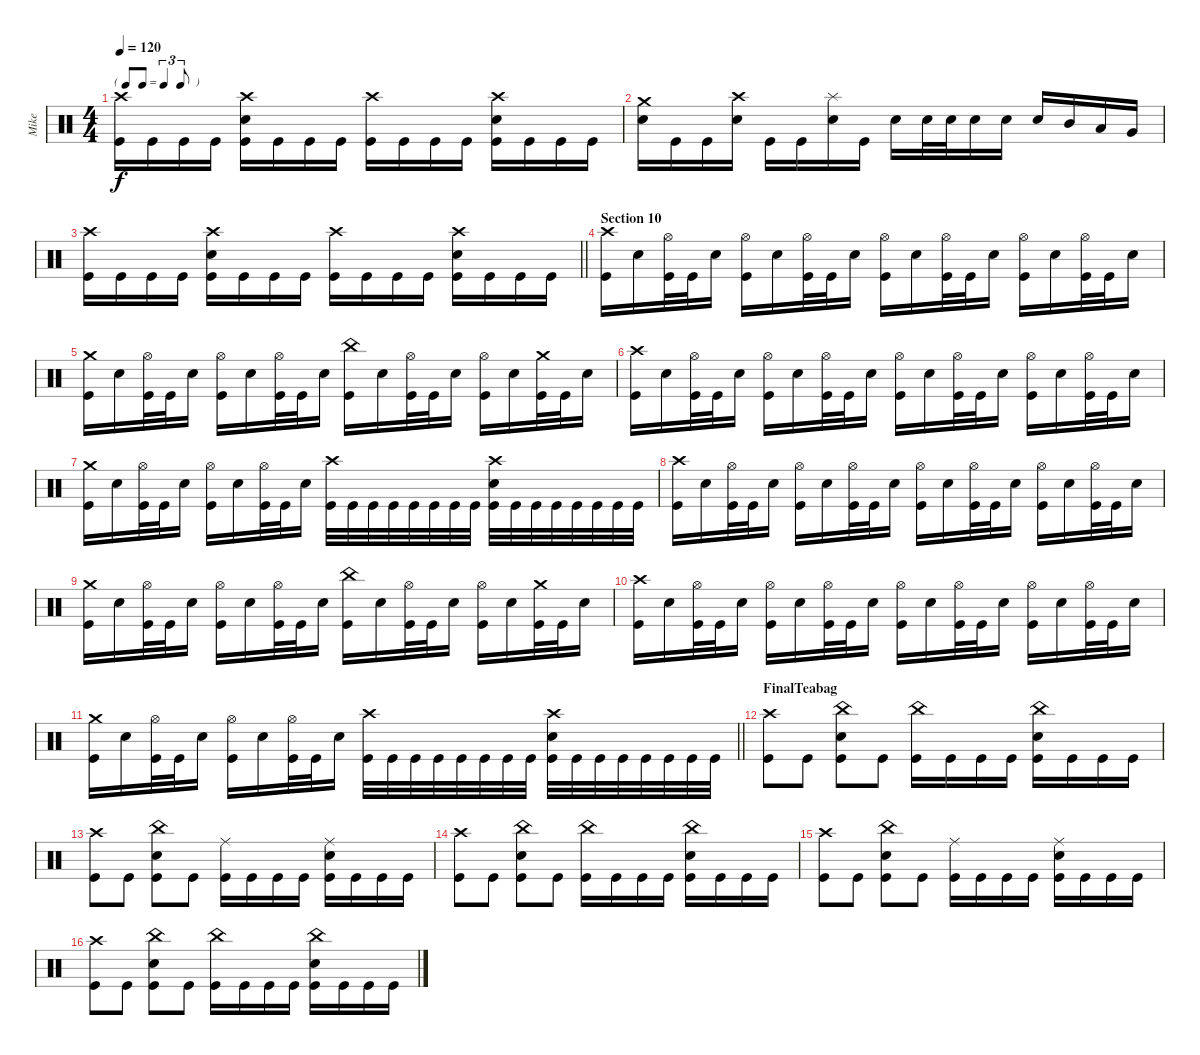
\track ("Mike" "Mike") {instrument percussion}
\staff {score}
\articulation defaults
\ts (4 4)
\tf triplet8th
\tempo 120
\clef neutral
\ks c
("Crash high (hit)" "Kick (hit)").16{dy f} "Kick (hit)".16 "Kick (hit)".16 "Kick (hit)".16 ("Crash high (hit)" "Snare (hit) 2" "Kick (hit)").16 "Kick (hit)".16 "Kick (hit)".16 "Kick (hit)".16 ("Crash high (hit)" "Kick (hit)").16 "Kick (hit)".16 "Kick (hit)".16 "Kick (hit)".16 ("Crash high (hit)" "Snare (hit) 2" "Kick (hit)").16 "Kick (hit)".16 "Kick (hit)".16 "Kick (hit)".16 |
("Crash medium (hit)" "Snare (hit) 2").16 "Kick (hit)".16 "Kick (hit)".16 ("Crash high (hit)" "Snare (hit) 2").16 "Kick (hit)".16 "Kick (hit)".16 ("Splash (hit)" "Snare (hit) 2").16 "Kick (hit)".16 "Snare (hit) 2".16 "Snare (hit) 2".32 "Snare (hit) 2".32 "Snare (hit) 2".16 "Snare (hit) 2".16 "Snare (hit) 2".16 "Mid Tom (hit)".16 "Low Tom (hit)".16 "Very Low Tom (hit)".16 |
\barLineRight lightlight
("Crash high (hit)" "Kick (hit)").16 "Kick (hit)".16 "Kick (hit)".16 "Kick (hit)".16 ("Crash high (hit)" "Snare (hit) 2" "Kick (hit)").16 "Kick (hit)".16 "Kick (hit)".16 "Kick (hit)".16 ("Crash high (hit)" "Kick (hit)").16 "Kick (hit)".16 "Kick (hit)".16 "Kick (hit)".16 ("Crash high (hit)" "Snare (hit) 2" "Kick (hit)").16 "Kick (hit)".16 "Kick (hit)".16 "Kick (hit)".16 |
\section ("" "Section 10")
("Crash high (hit)" "Kick (hit)").16 "Snare (hit) 2".16 ("Hi-Hat (open)" "Kick (hit)").32 "Kick (hit)".32 "Snare (hit) 2".16 ("Hi-Hat (open)" "Kick (hit)").16 "Snare (hit) 2".16 ("Hi-Hat (open)" "Kick (hit)").32 "Kick (hit)".32 "Snare (hit) 2".16 ("Hi-Hat (open)" "Kick (hit)").16 "Snare (hit) 2".16 ("Hi-Hat (open)" "Kick (hit)").32 "Kick (hit)".32 "Snare (hit) 2".16 ("Hi-Hat (open)" "Kick (hit)").16 "Snare (hit) 2".16 ("Hi-Hat (open)" "Kick (hit)").32 "Kick (hit)".32 "Snare (hit) 2".16 |
("Crash medium (hit)" "Kick (hit)").16 "Snare (hit) 2".16 ("Hi-Hat (open)" "Kick (hit)").32 "Kick (hit)".32 "Snare (hit) 2".16 ("Hi-Hat (open)" "Kick (hit)").16 "Snare (hit) 2".16 ("Hi-Hat (open)" "Kick (hit)").32 "Kick (hit)".32 "Snare (hit) 2".16 ("China (hit)" "Kick (hit)").16 "Snare (hit) 2".16 ("Hi-Hat (open)" "Kick (hit)").32 "Kick (hit)".32 "Snare (hit) 2".16 ("Hi-Hat (open)" "Kick (hit)").16 "Snare (hit) 2".16 ("Crash medium (hit)" "Kick (hit)").32 "Kick (hit)".32 "Snare (hit) 2".16 |
("Crash high (hit)" "Kick (hit)").16 "Snare (hit) 2".16 ("Hi-Hat (open)" "Kick (hit)").32 "Kick (hit)".32 "Snare (hit) 2".16 ("Hi-Hat (open)" "Kick (hit)").16 "Snare (hit) 2".16 ("Hi-Hat (open)" "Kick (hit)").32 "Kick (hit)".32 "Snare (hit) 2".16 ("Hi-Hat (open)" "Kick (hit)").16 "Snare (hit) 2".16 ("Hi-Hat (open)" "Kick (hit)").32 "Kick (hit)".32 "Snare (hit) 2".16 ("Hi-Hat (open)" "Kick (hit)").16 "Snare (hit) 2".16 ("Hi-Hat (open)" "Kick (hit)").32 "Kick (hit)".32 "Snare (hit) 2".16 |
("Crash medium (hit)" "Kick (hit)").16 "Snare (hit) 2".16 ("Hi-Hat (open)" "Kick (hit)").32 "Kick (hit)".32 "Snare (hit) 2".16 ("Hi-Hat (open)" "Kick (hit)").16 "Snare (hit) 2".16 ("Hi-Hat (open)" "Kick (hit)").32 "Kick (hit)".32 "Snare (hit) 2".16 ("Crash high (hit)" "Kick (hit)").32 "Kick (hit)".32 "Kick (hit)".32 "Kick (hit)".32 "Kick (hit)".32 "Kick (hit)".32 "Kick (hit)".32 "Kick (hit)".32 ("Crash high (hit)" "Snare (hit) 2" "Kick (hit)").32 "Kick (hit)".32 "Kick (hit)".32 "Kick (hit)".32 "Kick (hit)".32 "Kick (hit)".32 "Kick (hit)".32 "Kick (hit)".32 |
("Crash high (hit)" "Kick (hit)").16 "Snare (hit) 2".16 ("Hi-Hat (open)" "Kick (hit)").32 "Kick (hit)".32 "Snare (hit) 2".16 ("Hi-Hat (open)" "Kick (hit)").16 "Snare (hit) 2".16 ("Hi-Hat (open)" "Kick (hit)").32 "Kick (hit)".32 "Snare (hit) 2".16 ("Hi-Hat (open)" "Kick (hit)").16 "Snare (hit) 2".16 ("Hi-Hat (open)" "Kick (hit)").32 "Kick (hit)".32 "Snare (hit) 2".16 ("Hi-Hat (open)" "Kick (hit)").16 "Snare (hit) 2".16 ("Hi-Hat (open)" "Kick (hit)").32 "Kick (hit)".32 "Snare (hit) 2".16 |
("Crash medium (hit)" "Kick (hit)").16 "Snare (hit) 2".16 ("Hi-Hat (open)" "Kick (hit)").32 "Kick (hit)".32 "Snare (hit) 2".16 ("Hi-Hat (open)" "Kick (hit)").16 "Snare (hit) 2".16 ("Hi-Hat (open)" "Kick (hit)").32 "Kick (hit)".32 "Snare (hit) 2".16 ("China (hit)" "Kick (hit)").16 "Snare (hit) 2".16 ("Hi-Hat (open)" "Kick (hit)").32 "Kick (hit)".32 "Snare (hit) 2".16 ("Hi-Hat (open)" "Kick (hit)").16 "Snare (hit) 2".16 ("Crash medium (hit)" "Kick (hit)").32 "Kick (hit)".32 "Snare (hit) 2".16 |
("Crash high (hit)" "Kick (hit)").16 "Snare (hit) 2".16 ("Hi-Hat (open)" "Kick (hit)").32 "Kick (hit)".32 "Snare (hit) 2".16 ("Hi-Hat (open)" "Kick (hit)").16 "Snare (hit) 2".16 ("Hi-Hat (open)" "Kick (hit)").32 "Kick (hit)".32 "Snare (hit) 2".16 ("Hi-Hat (open)" "Kick (hit)").16 "Snare (hit) 2".16 ("Hi-Hat (open)" "Kick (hit)").32 "Kick (hit)".32 "Snare (hit) 2".16 ("Hi-Hat (open)" "Kick (hit)").16 "Snare (hit) 2".16 ("Hi-Hat (open)" "Kick (hit)").32 "Kick (hit)".32 "Snare (hit) 2".16 |
\barLineRight lightlight
("Crash medium (hit)" "Kick (hit)").16 "Snare (hit) 2".16 ("Hi-Hat (open)" "Kick (hit)").32 "Kick (hit)".32 "Snare (hit) 2".16 ("Hi-Hat (open)" "Kick (hit)").16 "Snare (hit) 2".16 ("Hi-Hat (open)" "Kick (hit)").32 "Kick (hit)".32 "Snare (hit) 2".16 ("Crash high (hit)" "Kick (hit)").32 "Kick (hit)".32 "Kick (hit)".32 "Kick (hit)".32 "Kick (hit)".32 "Kick (hit)".32 "Kick (hit)".32 "Kick (hit)".32 ("Crash high (hit)" "Snare (hit) 2" "Kick (hit)").32 "Kick (hit)".32 "Kick (hit)".32 "Kick (hit)".32 "Kick (hit)".32 "Kick (hit)".32 "Kick (hit)".32 "Kick (hit)".32 |
\section ("" "FinalTeabag")
("Crash high (hit)" "Kick (hit)").8 "Kick (hit)".8 ("China (hit)" "Snare (hit) 2" "Kick (hit)").8 "Kick (hit)".8 ("China (hit)" "Kick (hit)").16 "Kick (hit)".16 "Kick (hit)".16 "Kick (hit)".16 ("China (hit)" "Snare (hit) 2" "Kick (hit)").16 "Kick (hit)".16 "Kick (hit)".16 "Kick (hit)".16 |
("Crash high (hit)" "Kick (hit)").8 "Kick (hit)".8 ("China (hit)" "Snare (hit) 2" "Kick (hit)").8 "Kick (hit)".8 ("Ride (middle)" "Kick (hit)").16 "Kick (hit)".16 "Kick (hit)".16 "Kick (hit)".16 ("Ride (middle)" "Snare (hit) 2" "Kick (hit)").16 "Kick (hit)".16 "Kick (hit)".16 "Kick (hit)".16 |
("Crash high (hit)" "Kick (hit)").8 "Kick (hit)".8 ("China (hit)" "Snare (hit) 2" "Kick (hit)").8 "Kick (hit)".8 ("China (hit)" "Kick (hit)").16 "Kick (hit)".16 "Kick (hit)".16 "Kick (hit)".16 ("China (hit)" "Snare (hit) 2" "Kick (hit)").16 "Kick (hit)".16 "Kick (hit)".16 "Kick (hit)".16 |
("Crash high (hit)" "Kick (hit)").8 "Kick (hit)".8 ("China (hit)" "Snare (hit) 2" "Kick (hit)").8 "Kick (hit)".8 ("Ride (middle)" "Kick (hit)").16 "Kick (hit)".16 "Kick (hit)".16 "Kick (hit)".16 ("Ride (middle)" "Snare (hit) 2" "Kick (hit)").16 "Kick (hit)".16 "Kick (hit)".16 "Kick (hit)".16 |
("Crash high (hit)" "Kick (hit)").8 "Kick (hit)".8 ("China (hit)" "Snare (hit) 2" "Kick (hit)").8 "Kick (hit)".8 ("China (hit)" "Kick (hit)").16 "Kick (hit)".16 "Kick (hit)".16 "Kick (hit)".16 ("China (hit)" "Snare (hit) 2" "Kick (hit)").16 "Kick (hit)".16 "Kick (hit)".16 "Kick (hit)".16
